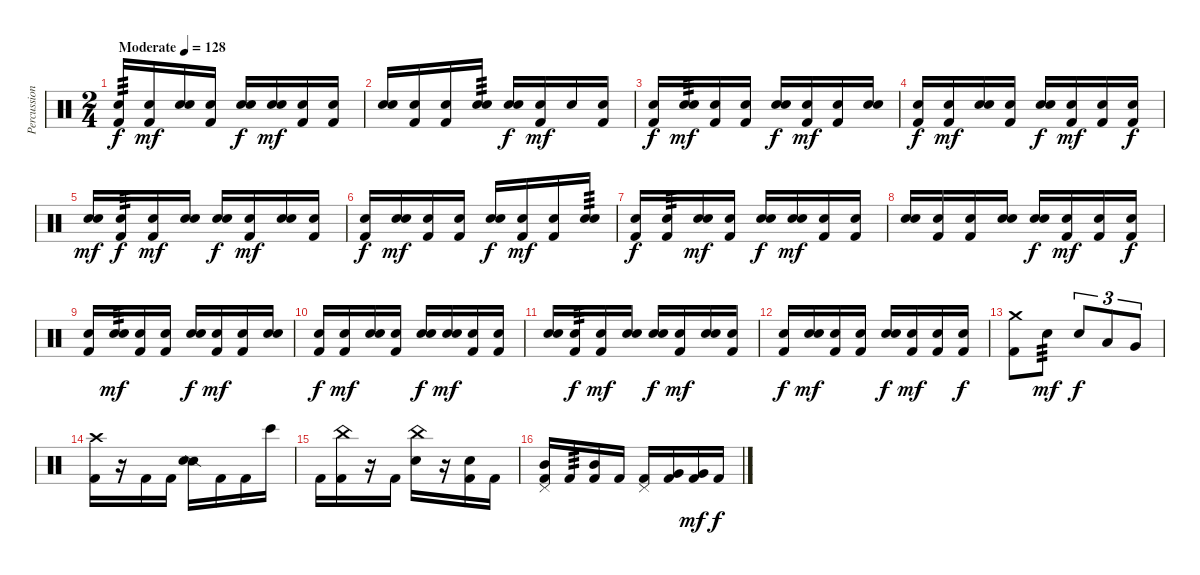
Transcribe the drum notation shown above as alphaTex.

\track ("Percussion" "Percussion") {instrument percussion}
\staff {score}
\articulation defaults
\ts (2 4)
\tempo (128 "Moderate")
\clef neutral
\ks c
("Snare (hit)" "Kick (hit) 2").16{tp 3 dy f} ("Snare (hit)" "Kick (hit) 2").16{dy mf} ("Snare (hit)" "Snare (hit) 2").16 ("Snare (hit)" "Kick (hit) 2").16 ("Snare (hit)" "Snare (hit) 2").16{dy f} ("Snare (hit)" "Snare (hit) 2").16{dy mf} ("Snare (hit)" "Kick (hit) 2").16 ("Snare (hit)" "Kick (hit) 2").16 |
("Snare (hit)" "Snare (hit) 2").16 ("Snare (hit)" "Kick (hit) 2").16 ("Snare (hit)" "Kick (hit) 2").16 ("Snare (hit)" "Snare (hit) 2").16{tp 3} ("Snare (hit)" "Snare (hit) 2").16{dy f} ("Snare (hit)" "Kick (hit) 2").16{dy mf} "Snare (hit)".16 ("Snare (hit)" "Kick (hit) 2").16 |
("Snare (hit)" "Kick (hit) 2").16{dy f} ("Snare (hit)" "Snare (hit) 2").16{tp 3 dy mf} ("Snare (hit)" "Kick (hit) 2").16 ("Snare (hit)" "Kick (hit) 2").16 ("Snare (hit)" "Snare (hit) 2").16{dy f} ("Snare (hit)" "Kick (hit) 2").16{dy mf} ("Snare (hit)" "Kick (hit) 2").16 ("Snare (hit)" "Snare (hit) 2").16 |
("Snare (hit)" "Kick (hit) 2").16{dy f} ("Snare (hit)" "Kick (hit) 2").16{dy mf} ("Snare (hit)" "Snare (hit) 2").16 ("Snare (hit)" "Kick (hit) 2").16 ("Snare (hit)" "Snare (hit) 2").16{dy f} ("Snare (hit)" "Kick (hit) 2").16{dy mf} ("Snare (hit)" "Kick (hit) 2").16 ("Snare (hit)" "Kick (hit) 2").16{dy f} |
("Snare (hit)" "Snare (hit) 2").16{dy mf} ("Snare (hit)" "Kick (hit) 2").16{tp 3 dy f} ("Snare (hit)" "Kick (hit) 2").16{dy mf} ("Snare (hit)" "Snare (hit) 2").16 ("Snare (hit)" "Snare (hit) 2").16{dy f} ("Snare (hit)" "Kick (hit) 2").16{dy mf} ("Snare (hit)" "Snare (hit) 2").16 ("Snare (hit)" "Kick (hit) 2").16 |
("Snare (hit)" "Kick (hit) 2").16{dy f} ("Snare (hit)" "Snare (hit) 2").16{dy mf} ("Snare (hit)" "Kick (hit) 2").16 ("Snare (hit)" "Kick (hit) 2").16 ("Snare (hit)" "Snare (hit) 2").16{dy f} ("Snare (hit)" "Kick (hit) 2").16{dy mf} ("Snare (hit)" "Kick (hit) 2").16 ("Snare (hit)" "Snare (hit) 2").16{tp 3} |
("Snare (hit)" "Kick (hit) 2").16{dy f} ("Snare (hit)" "Kick (hit) 2").16{tp 3} ("Snare (hit)" "Snare (hit) 2").16{dy mf} ("Snare (hit)" "Kick (hit) 2").16 ("Snare (hit)" "Snare (hit) 2").16{dy f} ("Snare (hit)" "Snare (hit) 2").16{dy mf} ("Snare (hit)" "Kick (hit) 2").16 ("Snare (hit)" "Kick (hit) 2").16 |
("Snare (hit)" "Snare (hit) 2").16 ("Snare (hit)" "Kick (hit) 2").16 ("Snare (hit)" "Kick (hit) 2").16 ("Snare (hit)" "Snare (hit) 2").16 ("Snare (hit)" "Snare (hit) 2").16{dy f} ("Snare (hit)" "Kick (hit) 2").16{dy mf} ("Snare (hit)" "Kick (hit) 2").16 ("Snare (hit)" "Kick (hit) 2").16{dy f} |
("Snare (hit)" "Kick (hit) 2").16 ("Snare (hit)" "Snare (hit) 2").16{tp 3 dy mf} ("Snare (hit)" "Kick (hit) 2").16 ("Snare (hit)" "Kick (hit) 2").16 ("Snare (hit)" "Snare (hit) 2").16{dy f} ("Snare (hit)" "Kick (hit) 2").16{dy mf} ("Snare (hit)" "Kick (hit) 2").16 ("Snare (hit)" "Snare (hit) 2").16 |
("Snare (hit)" "Kick (hit) 2").16{dy f} ("Snare (hit)" "Kick (hit) 2").16{dy mf} ("Snare (hit)" "Snare (hit) 2").16 ("Snare (hit)" "Kick (hit) 2").16 ("Snare (hit)" "Snare (hit) 2").16{dy f} ("Snare (hit)" "Snare (hit) 2").16{dy mf} ("Snare (hit)" "Kick (hit) 2").16 ("Snare (hit)" "Kick (hit) 2").16 |
("Snare (hit)" "Snare (hit) 2").16 ("Snare (hit)" "Kick (hit) 2").16{tp 3 dy f} ("Snare (hit)" "Kick (hit) 2").16{dy mf} ("Snare (hit)" "Snare (hit) 2").16 ("Snare (hit)" "Snare (hit) 2").16{dy f} ("Snare (hit)" "Kick (hit) 2").16{dy mf} ("Snare (hit)" "Snare (hit) 2").16 ("Snare (hit)" "Kick (hit) 2").16 |
("Snare (hit)" "Kick (hit) 2").16{dy f} ("Snare (hit)" "Snare (hit) 2").16{dy mf} ("Snare (hit)" "Kick (hit) 2").16 ("Snare (hit)" "Kick (hit) 2").16 ("Snare (hit)" "Snare (hit) 2").16{dy f} ("Snare (hit)" "Kick (hit) 2").16{dy mf} ("Snare (hit)" "Kick (hit) 2").16 ("Snare (hit)" "Kick (hit) 2").16{dy f} |
("Crash medium (hit)" "Kick (hit) 2").8 "Snare (hit) 2".8{tp 3 dy mf} "Snare (hit) 2".8{tu (3 2) dy f} "Low Tom (hit)".8{tu (3 2)} "Very Low Tom (hit)".8{tu (3 2)} |
("Crash high (hit)" "Kick (hit) 2").16 r.16 "Kick (hit) 2".16 "Kick (hit) 2".16 ("Snare (side stick) 2" "Snare (hit) 2").16 "Kick (hit) 2".16 "Kick (hit) 2".16 "Bongo High (hit)".16 |
"Kick (hit) 2".16 ("China (hit)" "Kick (hit) 2").16 r.16 "Kick (hit) 2".16 ("China (hit)" "Snare (hit) 2").16 r.16 ("Snare (hit)" "Kick (hit) 2").16 "Kick (hit) 2".16 |
("Pedal Hi-Hat (hit)" "Mid Tom (hit)" "Kick (hit) 2").16 "Kick (hit) 2".16{tp 3} ("Mid Tom (hit)" "Kick (hit) 2").16 "Kick (hit) 2".16 ("Pedal Hi-Hat (hit)" "Kick (hit) 2").16 ("Very Low Tom (hit)" "Kick (hit) 2").16 ("Very Low Tom (hit)" "Kick (hit) 2").16{dy mf} "Kick (hit) 2".16{dy f}
